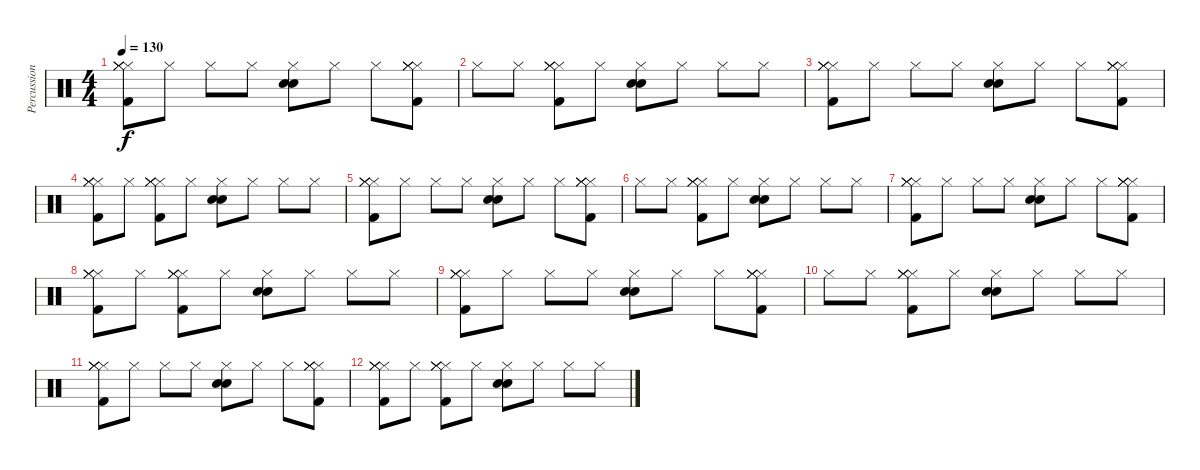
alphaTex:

\track ("Percussion" "Percussion") {instrument percussion}
\staff {score}
\articulation defaults
\ts (4 4)
\tempo 130
\clef neutral
\ks c
("Hi-Hat (closed)" "Hi-Hat (closed)" "Kick (hit) 2" "Hi-Hat (closed)" "Hi-Hat (closed)").8{dy f} "Hi-Hat (closed)".8 "Hi-Hat (closed)".8 "Hi-Hat (closed)".8 ("Hi-Hat (closed)" "Snare (hit) 2" "Snare (hit) 2").8 "Hi-Hat (closed)".8 "Hi-Hat (closed)".8 ("Hi-Hat (closed)" "Kick (hit) 2" "Hi-Hat (closed)" "Hi-Hat (closed)" "Hi-Hat (closed)").8 |
"Hi-Hat (closed)".8 "Hi-Hat (closed)".8 ("Hi-Hat (closed)" "Kick (hit) 2" "Hi-Hat (closed)" "Hi-Hat (closed)" "Hi-Hat (closed)").8 "Hi-Hat (closed)".8 ("Hi-Hat (closed)" "Snare (hit) 2" "Snare (hit) 2").8 "Hi-Hat (closed)".8 "Hi-Hat (closed)".8 "Hi-Hat (closed)".8 |
("Hi-Hat (closed)" "Hi-Hat (closed)" "Kick (hit) 2" "Hi-Hat (closed)" "Hi-Hat (closed)").8 "Hi-Hat (closed)".8 "Hi-Hat (closed)".8 "Hi-Hat (closed)".8 ("Hi-Hat (closed)" "Snare (hit) 2" "Snare (hit) 2").8 "Hi-Hat (closed)".8 "Hi-Hat (closed)".8 ("Hi-Hat (closed)" "Kick (hit) 2" "Hi-Hat (closed)" "Hi-Hat (closed)" "Hi-Hat (closed)").8 |
("Hi-Hat (closed)" "Kick (hit) 2" "Hi-Hat (closed)" "Hi-Hat (closed)" "Hi-Hat (closed)").8 "Hi-Hat (closed)".8 ("Hi-Hat (closed)" "Kick (hit) 2" "Hi-Hat (closed)" "Hi-Hat (closed)" "Hi-Hat (closed)").8 "Hi-Hat (closed)".8 ("Hi-Hat (closed)" "Snare (hit) 2" "Snare (hit) 2").8 "Hi-Hat (closed)".8 "Hi-Hat (closed)".8 "Hi-Hat (closed)".8 |
("Hi-Hat (closed)" "Hi-Hat (closed)" "Kick (hit) 2" "Hi-Hat (closed)" "Hi-Hat (closed)").8 "Hi-Hat (closed)".8 "Hi-Hat (closed)".8 "Hi-Hat (closed)".8 ("Hi-Hat (closed)" "Snare (hit) 2" "Snare (hit) 2").8 "Hi-Hat (closed)".8 "Hi-Hat (closed)".8 ("Hi-Hat (closed)" "Kick (hit) 2" "Hi-Hat (closed)" "Hi-Hat (closed)" "Hi-Hat (closed)").8 |
"Hi-Hat (closed)".8 "Hi-Hat (closed)".8 ("Hi-Hat (closed)" "Kick (hit) 2" "Hi-Hat (closed)" "Hi-Hat (closed)" "Hi-Hat (closed)").8 "Hi-Hat (closed)".8 ("Hi-Hat (closed)" "Snare (hit) 2" "Snare (hit) 2").8 "Hi-Hat (closed)".8 "Hi-Hat (closed)".8 "Hi-Hat (closed)".8 |
("Hi-Hat (closed)" "Hi-Hat (closed)" "Kick (hit) 2" "Hi-Hat (closed)" "Hi-Hat (closed)").8 "Hi-Hat (closed)".8 "Hi-Hat (closed)".8 "Hi-Hat (closed)".8 ("Hi-Hat (closed)" "Snare (hit) 2" "Snare (hit) 2").8 "Hi-Hat (closed)".8 "Hi-Hat (closed)".8 ("Hi-Hat (closed)" "Kick (hit) 2" "Hi-Hat (closed)" "Hi-Hat (closed)" "Hi-Hat (closed)").8 |
("Hi-Hat (closed)" "Kick (hit) 2" "Hi-Hat (closed)" "Hi-Hat (closed)" "Hi-Hat (closed)").8 "Hi-Hat (closed)".8 ("Hi-Hat (closed)" "Kick (hit) 2" "Hi-Hat (closed)" "Hi-Hat (closed)" "Hi-Hat (closed)").8 "Hi-Hat (closed)".8 ("Hi-Hat (closed)" "Snare (hit) 2" "Snare (hit) 2").8 "Hi-Hat (closed)".8 "Hi-Hat (closed)".8 "Hi-Hat (closed)".8 |
("Hi-Hat (closed)" "Hi-Hat (closed)" "Kick (hit) 2" "Hi-Hat (closed)" "Hi-Hat (closed)").8 "Hi-Hat (closed)".8 "Hi-Hat (closed)".8 "Hi-Hat (closed)".8 ("Hi-Hat (closed)" "Snare (hit) 2" "Snare (hit) 2").8 "Hi-Hat (closed)".8 "Hi-Hat (closed)".8 ("Hi-Hat (closed)" "Kick (hit) 2" "Hi-Hat (closed)" "Hi-Hat (closed)" "Hi-Hat (closed)").8 |
"Hi-Hat (closed)".8 "Hi-Hat (closed)".8 ("Hi-Hat (closed)" "Kick (hit) 2" "Hi-Hat (closed)" "Hi-Hat (closed)" "Hi-Hat (closed)").8 "Hi-Hat (closed)".8 ("Hi-Hat (closed)" "Snare (hit) 2" "Snare (hit) 2").8 "Hi-Hat (closed)".8 "Hi-Hat (closed)".8 "Hi-Hat (closed)".8 |
("Hi-Hat (closed)" "Hi-Hat (closed)" "Kick (hit) 2" "Hi-Hat (closed)" "Hi-Hat (closed)").8 "Hi-Hat (closed)".8 "Hi-Hat (closed)".8 "Hi-Hat (closed)".8 ("Hi-Hat (closed)" "Snare (hit) 2" "Snare (hit) 2").8 "Hi-Hat (closed)".8 "Hi-Hat (closed)".8 ("Hi-Hat (closed)" "Kick (hit) 2" "Hi-Hat (closed)" "Hi-Hat (closed)" "Hi-Hat (closed)").8 |
("Hi-Hat (closed)" "Kick (hit) 2" "Hi-Hat (closed)" "Hi-Hat (closed)" "Hi-Hat (closed)").8 "Hi-Hat (closed)".8 ("Hi-Hat (closed)" "Kick (hit) 2" "Hi-Hat (closed)" "Hi-Hat (closed)" "Hi-Hat (closed)").8 "Hi-Hat (closed)".8 ("Hi-Hat (closed)" "Snare (hit) 2" "Snare (hit) 2").8 "Hi-Hat (closed)".8 "Hi-Hat (closed)".8 "Hi-Hat (closed)".8
